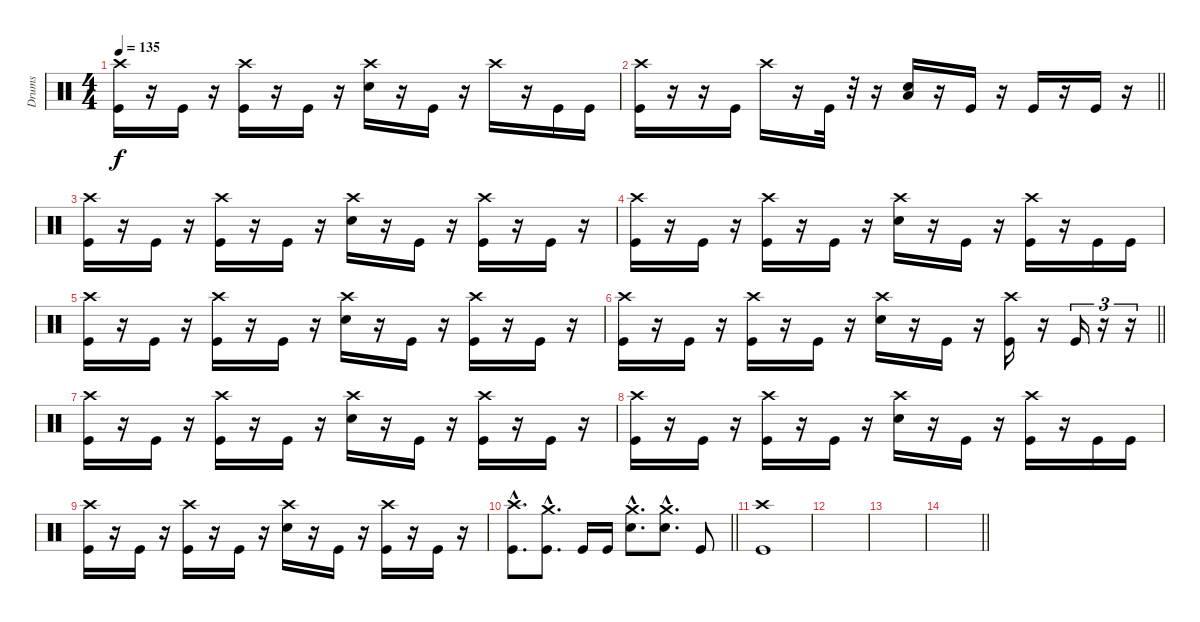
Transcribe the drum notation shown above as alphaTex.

\track ("Drums" "Drums") {instrument percussion}
\staff {score}
\articulation defaults
\ts (4 4)
\tempo 135
\clef neutral
\ks c
("Crash high (hit)" "Kick (hit)").16{dy f} r.16 "Kick (hit)".16 r.16 ("Crash high (hit)" "Kick (hit)").16 r.16 "Kick (hit)".16 r.16 ("Crash high (hit)" "Snare (hit) 2").16 r.16 "Kick (hit)".16 r.16 "Crash high (hit)".16 r.16 "Kick (hit)".16 "Kick (hit)".16 |
\barLineRight lightlight
("Crash high (hit)" "Kick (hit)").16 r.16 r.16 "Kick (hit)".16 "Crash high (hit)".16 r.16 "Kick (hit)".32 r.32 r.16 ("Low Floor Tom (hit)" "Snare (hit) 2").16 r.16 "Kick (hit)".16 r.16 "Kick (hit)".16 r.16 "Kick (hit)".16 r.16 |
("Crash high (hit)" "Kick (hit)").16 r.16 "Kick (hit)".16 r.16 ("Crash high (hit)" "Kick (hit)").16 r.16 "Kick (hit)".16 r.16 ("Crash high (hit)" "Snare (hit) 2").16 r.16 "Kick (hit)".16 r.16 ("Crash high (hit)" "Kick (hit)").16 r.16 "Kick (hit)".16 r.16 |
("Crash high (hit)" "Kick (hit)").16 r.16 "Kick (hit)".16 r.16 ("Crash high (hit)" "Kick (hit)").16 r.16 "Kick (hit)".16 r.16 ("Crash high (hit)" "Snare (hit) 2").16 r.16 "Kick (hit)".16 r.16 ("Crash high (hit)" "Kick (hit)").16 r.16 "Kick (hit)".16 "Kick (hit)".16 |
("Crash high (hit)" "Kick (hit)").16 r.16 "Kick (hit)".16 r.16 ("Crash high (hit)" "Kick (hit)").16 r.16 "Kick (hit)".16 r.16 ("Crash high (hit)" "Snare (hit) 2").16 r.16 "Kick (hit)".16 r.16 ("Crash high (hit)" "Kick (hit)").16 r.16 "Kick (hit)".16 r.16 |
\barLineRight lightlight
("Crash high (hit)" "Kick (hit)").16 r.16 "Kick (hit)".16 r.16 ("Crash high (hit)" "Kick (hit)").16 r.16 "Kick (hit)".16 r.16 ("Crash high (hit)" "Snare (hit) 2").16 r.16 "Kick (hit)".16 r.16 ("Crash high (hit)" "Kick (hit)").16 r.16 "Kick (hit)".16{tu (3 2)} r.16{tu (3 2)} r.16{tu (3 2)} |
("Crash high (hit)" "Kick (hit)").16 r.16 "Kick (hit)".16 r.16 ("Crash high (hit)" "Kick (hit)").16 r.16 "Kick (hit)".16 r.16 ("Crash high (hit)" "Snare (hit) 2").16 r.16 "Kick (hit)".16 r.16 ("Crash high (hit)" "Kick (hit)").16 r.16 "Kick (hit)".16 r.16 |
("Crash high (hit)" "Kick (hit)").16 r.16 "Kick (hit)".16 r.16 ("Crash high (hit)" "Kick (hit)").16 r.16 "Kick (hit)".16 r.16 ("Crash high (hit)" "Snare (hit) 2").16 r.16 "Kick (hit)".16 r.16 ("Crash high (hit)" "Kick (hit)").16 r.16 "Kick (hit)".16 "Kick (hit)".16 |
("Crash high (hit)" "Kick (hit)").16 r.16 "Kick (hit)".16 r.16 ("Crash high (hit)" "Kick (hit)").16 r.16 "Kick (hit)".16 r.16 ("Crash high (hit)" "Snare (hit) 2").16 r.16 "Kick (hit)".16 r.16 ("Crash high (hit)" "Kick (hit)").16 r.16 "Kick (hit)".16 r.16 |
\barLineRight lightlight
("Crash high (hit)"{hac} "Kick (hit)"{hac}).8{d} ("Crash medium (hit)"{hac} "Kick (hit)"{hac}).8{d} "Kick (hit)".16 "Kick (hit)".16 ("Crash medium (hit)"{hac} "Snare (hit) 2"{hac}).8{d} ("Crash medium (hit)"{hac} "Snare (hit) 2"{hac}).8{d} "Kick (hit)".8 |
("Crash high (hit)" "Kick (hit)").1 |
|
|
\barLineRight lightlight
